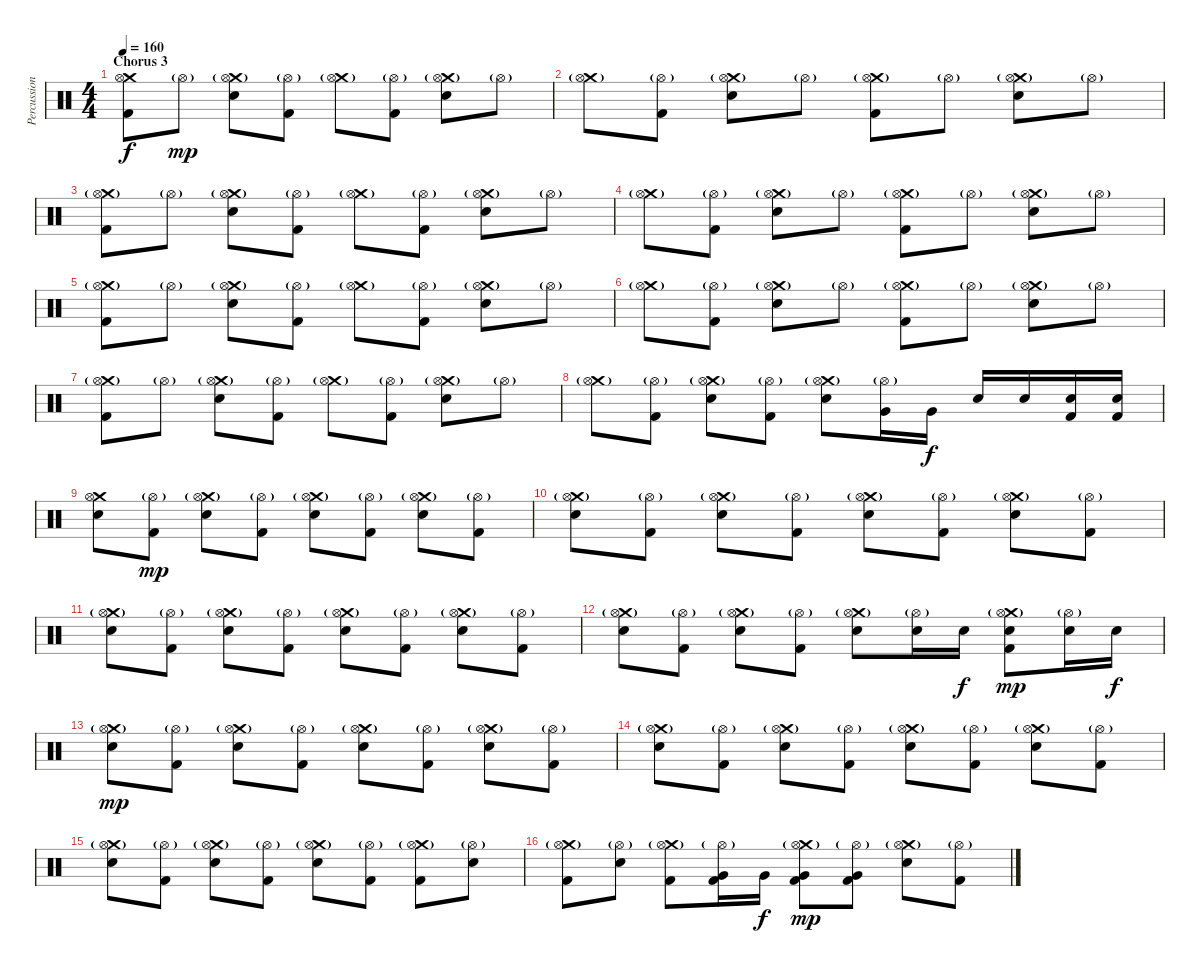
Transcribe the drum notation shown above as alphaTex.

\track ("Percussions" "Percussion") {instrument percussion}
\staff {score}
\articulation defaults
\ts (4 4)
\section ("" "Chorus 3")
\tempo 160
\clef neutral
\ks c
("Crash medium (hit)" "Hi-Hat (open)" "Kick (hit) 2").8{dy f} "Hi-Hat (open)"{g}.8{dy mp} ("Crash medium (hit)"{g} "Hi-Hat (open)" "Snare (hit) 2").8 ("Hi-Hat (open)"{g} "Kick (hit) 2").8 ("Crash medium (hit)"{g} "Hi-Hat (open)").8 ("Hi-Hat (open)"{g} "Kick (hit) 2").8 ("Crash medium (hit)"{g} "Hi-Hat (open)" "Snare (hit) 2").8 "Hi-Hat (open)"{g}.8 |
("Crash medium (hit)"{g} "Hi-Hat (open)").8 ("Hi-Hat (open)"{g} "Kick (hit) 2").8 ("Crash medium (hit)"{g} "Hi-Hat (open)" "Snare (hit) 2").8 "Hi-Hat (open)"{g}.8 ("Crash medium (hit)"{g} "Hi-Hat (open)" "Kick (hit) 2").8 "Hi-Hat (open)"{g}.8 ("Crash medium (hit)"{g} "Hi-Hat (open)" "Snare (hit) 2").8 "Hi-Hat (open)"{g}.8 |
("Crash medium (hit)"{g} "Hi-Hat (open)" "Kick (hit) 2").8 "Hi-Hat (open)"{g}.8 ("Crash medium (hit)"{g} "Hi-Hat (open)" "Snare (hit) 2").8 ("Hi-Hat (open)"{g} "Kick (hit) 2").8 ("Crash medium (hit)"{g} "Hi-Hat (open)").8 ("Hi-Hat (open)"{g} "Kick (hit) 2").8 ("Crash medium (hit)"{g} "Hi-Hat (open)" "Snare (hit) 2").8 "Hi-Hat (open)"{g}.8 |
("Crash medium (hit)"{g} "Hi-Hat (open)").8 ("Hi-Hat (open)"{g} "Kick (hit) 2").8 ("Crash medium (hit)"{g} "Hi-Hat (open)" "Snare (hit) 2").8 "Hi-Hat (open)"{g}.8 ("Crash medium (hit)"{g} "Hi-Hat (open)" "Kick (hit) 2").8 "Hi-Hat (open)"{g}.8 ("Crash medium (hit)"{g} "Hi-Hat (open)" "Snare (hit) 2").8 "Hi-Hat (open)"{g}.8 |
("Crash medium (hit)"{g} "Hi-Hat (open)" "Kick (hit) 2").8 "Hi-Hat (open)"{g}.8 ("Crash medium (hit)"{g} "Hi-Hat (open)" "Snare (hit) 2").8 ("Hi-Hat (open)"{g} "Kick (hit) 2").8 ("Crash medium (hit)"{g} "Hi-Hat (open)").8 ("Hi-Hat (open)"{g} "Kick (hit) 2").8 ("Crash medium (hit)"{g} "Hi-Hat (open)" "Snare (hit) 2").8 "Hi-Hat (open)"{g}.8 |
("Crash medium (hit)"{g} "Hi-Hat (open)").8 ("Hi-Hat (open)"{g} "Kick (hit) 2").8 ("Crash medium (hit)"{g} "Hi-Hat (open)" "Snare (hit) 2").8 "Hi-Hat (open)"{g}.8 ("Crash medium (hit)"{g} "Hi-Hat (open)" "Kick (hit) 2").8 "Hi-Hat (open)"{g}.8 ("Crash medium (hit)"{g} "Hi-Hat (open)" "Snare (hit) 2").8 "Hi-Hat (open)"{g}.8 |
("Crash medium (hit)"{g} "Hi-Hat (open)" "Kick (hit) 2").8 "Hi-Hat (open)"{g}.8 ("Crash medium (hit)"{g} "Hi-Hat (open)" "Snare (hit) 2").8 ("Hi-Hat (open)"{g} "Kick (hit) 2").8 ("Crash medium (hit)"{g} "Hi-Hat (open)").8 ("Hi-Hat (open)"{g} "Kick (hit) 2").8 ("Crash medium (hit)"{g} "Hi-Hat (open)" "Snare (hit) 2").8 "Hi-Hat (open)"{g}.8 |
("Crash medium (hit)"{g} "Hi-Hat (open)").8 ("Hi-Hat (open)"{g} "Kick (hit) 2").8 ("Crash medium (hit)"{g} "Hi-Hat (open)" "Snare (hit) 2").8 ("Hi-Hat (open)"{g} "Kick (hit) 2").8 ("Crash medium (hit)"{g} "Hi-Hat (open)" "Snare (hit) 2").8 ("Hi-Hat (open)"{g} "Very Low Tom (hit)").16 "Very Low Tom (hit)".16{dy f} "Snare (hit) 2".16 "Snare (hit) 2".16 ("Snare (hit) 2" "Kick (hit) 2").16 ("Snare (hit) 2" "Kick (hit) 2").16 |
("Crash medium (hit)" "Hi-Hat (open)" "Snare (hit) 2").8 ("Hi-Hat (open)"{g} "Kick (hit) 2").8{dy mp} ("Crash medium (hit)"{g} "Hi-Hat (open)" "Snare (hit) 2").8 ("Hi-Hat (open)"{g} "Kick (hit) 2").8 ("Crash medium (hit)"{g} "Hi-Hat (open)" "Snare (hit) 2").8 ("Hi-Hat (open)"{g} "Kick (hit) 2").8 ("Crash medium (hit)"{g} "Hi-Hat (open)" "Snare (hit) 2").8 ("Hi-Hat (open)"{g} "Kick (hit) 2").8 |
("Crash medium (hit)"{g} "Hi-Hat (open)" "Snare (hit) 2").8 ("Hi-Hat (open)"{g} "Kick (hit) 2").8 ("Crash medium (hit)"{g} "Hi-Hat (open)" "Snare (hit) 2").8 ("Hi-Hat (open)"{g} "Kick (hit) 2").8 ("Crash medium (hit)"{g} "Hi-Hat (open)" "Snare (hit) 2").8 ("Hi-Hat (open)"{g} "Kick (hit) 2").8 ("Crash medium (hit)"{g} "Hi-Hat (open)" "Snare (hit) 2").8 ("Hi-Hat (open)"{g} "Kick (hit) 2").8 |
("Crash medium (hit)"{g} "Hi-Hat (open)" "Snare (hit) 2").8 ("Hi-Hat (open)"{g} "Kick (hit) 2").8 ("Crash medium (hit)"{g} "Hi-Hat (open)" "Snare (hit) 2").8 ("Hi-Hat (open)"{g} "Kick (hit) 2").8 ("Crash medium (hit)"{g} "Hi-Hat (open)" "Snare (hit) 2").8 ("Hi-Hat (open)"{g} "Kick (hit) 2").8 ("Crash medium (hit)"{g} "Hi-Hat (open)" "Snare (hit) 2").8 ("Hi-Hat (open)"{g} "Kick (hit) 2").8 |
("Crash medium (hit)"{g} "Hi-Hat (open)" "Snare (hit) 2").8 ("Hi-Hat (open)"{g} "Kick (hit) 2").8 ("Crash medium (hit)"{g} "Hi-Hat (open)" "Snare (hit) 2").8 ("Hi-Hat (open)"{g} "Kick (hit) 2").8 ("Crash medium (hit)"{g} "Hi-Hat (open)" "Snare (hit) 2").8 ("Hi-Hat (open)"{g} "Snare (hit) 2").16 "Snare (hit) 2".16{dy f} ("Crash medium (hit)"{g} "Hi-Hat (open)" "Snare (hit) 2" "Kick (hit) 2").8{dy mp} ("Hi-Hat (open)"{g} "Snare (hit) 2").16 "Snare (hit) 2".16{dy f} |
("Crash medium (hit)"{g} "Hi-Hat (open)" "Snare (hit) 2").8{dy mp} ("Hi-Hat (open)"{g} "Kick (hit) 2").8 ("Crash medium (hit)"{g} "Hi-Hat (open)" "Snare (hit) 2").8 ("Hi-Hat (open)"{g} "Kick (hit) 2").8 ("Crash medium (hit)"{g} "Hi-Hat (open)" "Snare (hit) 2").8 ("Hi-Hat (open)"{g} "Kick (hit) 2").8 ("Crash medium (hit)"{g} "Hi-Hat (open)" "Snare (hit) 2").8 ("Hi-Hat (open)"{g} "Kick (hit) 2").8 |
("Crash medium (hit)"{g} "Hi-Hat (open)" "Snare (hit) 2").8 ("Hi-Hat (open)"{g} "Kick (hit) 2").8 ("Crash medium (hit)"{g} "Hi-Hat (open)" "Snare (hit) 2").8 ("Hi-Hat (open)"{g} "Kick (hit) 2").8 ("Crash medium (hit)"{g} "Hi-Hat (open)" "Snare (hit) 2").8 ("Hi-Hat (open)"{g} "Kick (hit) 2").8 ("Crash medium (hit)"{g} "Hi-Hat (open)" "Snare (hit) 2").8 ("Hi-Hat (open)"{g} "Kick (hit) 2").8 |
("Crash medium (hit)"{g} "Hi-Hat (open)" "Snare (hit) 2").8 ("Hi-Hat (open)"{g} "Kick (hit) 2").8 ("Crash medium (hit)"{g} "Hi-Hat (open)" "Snare (hit) 2").8 ("Hi-Hat (open)"{g} "Kick (hit) 2").8 ("Crash medium (hit)"{g} "Hi-Hat (open)" "Snare (hit) 2").8 ("Hi-Hat (open)"{g} "Kick (hit) 2").8 ("Crash medium (hit)"{g} "Hi-Hat (open)" "Kick (hit) 2").8 ("Hi-Hat (open)"{g} "Snare (hit) 2").8 |
("Crash medium (hit)"{g} "Hi-Hat (open)" "Kick (hit) 2").8 ("Hi-Hat (open)"{g} "Snare (hit) 2").8 ("Crash medium (hit)"{g} "Hi-Hat (open)" "Kick (hit) 2").8 ("Hi-Hat (open)"{g} "Very Low Tom (hit)" "Kick (hit) 2").16 "Very Low Tom (hit)".16{dy f} ("Crash medium (hit)"{g} "Hi-Hat (open)" "Very Low Tom (hit)" "Kick (hit) 2").8{dy mp} ("Hi-Hat (open)"{g} "Very Low Tom (hit)" "Kick (hit) 2").8 ("Crash medium (hit)"{g} "Hi-Hat (open)" "Snare (hit) 2").8 ("Hi-Hat (open)"{g} "Kick (hit) 2").8
